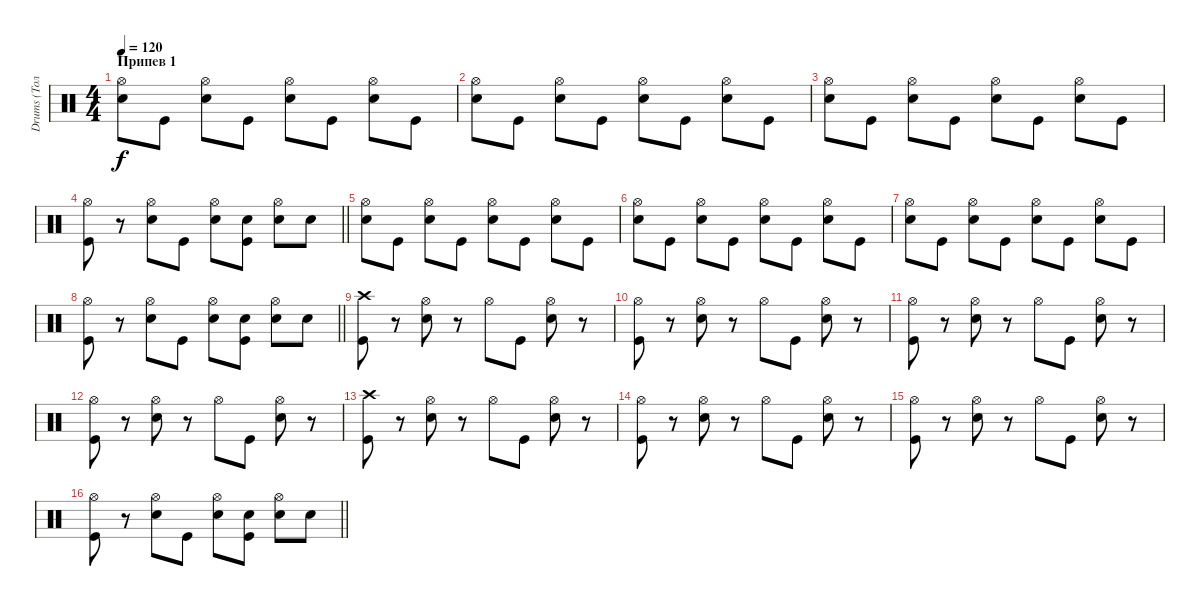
\track ("Drums (Толян)" "Drums (Тол") {instrument percussion}
\staff {score}
\articulation defaults
\ts (4 4)
\section ("" "Припев 1")
\tempo 120
\clef neutral
\ks c
("Hi-Hat (open)" "Electric Snare (hit)").8{dy f} "Kick (hit)".8 ("Hi-Hat (open)" "Electric Snare (hit)").8 "Kick (hit)".8 ("Hi-Hat (open)" "Electric Snare (hit)").8 "Kick (hit)".8 ("Hi-Hat (open)" "Electric Snare (hit)").8 "Kick (hit)".8 |
("Hi-Hat (open)" "Electric Snare (hit)").8 "Kick (hit)".8 ("Hi-Hat (open)" "Electric Snare (hit)").8 "Kick (hit)".8 ("Hi-Hat (open)" "Electric Snare (hit)").8 "Kick (hit)".8 ("Hi-Hat (open)" "Electric Snare (hit)").8 "Kick (hit)".8 |
("Hi-Hat (open)" "Electric Snare (hit)").8 "Kick (hit)".8 ("Hi-Hat (open)" "Electric Snare (hit)").8 "Kick (hit)".8 ("Hi-Hat (open)" "Electric Snare (hit)").8 "Kick (hit)".8 ("Hi-Hat (open)" "Electric Snare (hit)").8 "Kick (hit)".8 |
\barLineRight lightlight
("Hi-Hat (open)" "Kick (hit)").8 r.8 ("Hi-Hat (open)" "Electric Snare (hit)").8 "Kick (hit)".8 ("Hi-Hat (open)" "Electric Snare (hit)").8 ("Electric Snare (hit)" "Kick (hit)").8 ("Hi-Hat (open)" "Electric Snare (hit)").8 "Electric Snare (hit)".8 |
("Hi-Hat (open)" "Electric Snare (hit)").8 "Kick (hit)".8 ("Hi-Hat (open)" "Electric Snare (hit)").8 "Kick (hit)".8 ("Hi-Hat (open)" "Electric Snare (hit)").8 "Kick (hit)".8 ("Hi-Hat (open)" "Electric Snare (hit)").8 "Kick (hit)".8 |
("Hi-Hat (open)" "Electric Snare (hit)").8 "Kick (hit)".8 ("Hi-Hat (open)" "Electric Snare (hit)").8 "Kick (hit)".8 ("Hi-Hat (open)" "Electric Snare (hit)").8 "Kick (hit)".8 ("Hi-Hat (open)" "Electric Snare (hit)").8 "Kick (hit)".8 |
("Hi-Hat (open)" "Electric Snare (hit)").8 "Kick (hit)".8 ("Hi-Hat (open)" "Electric Snare (hit)").8 "Kick (hit)".8 ("Hi-Hat (open)" "Electric Snare (hit)").8 "Kick (hit)".8 ("Hi-Hat (open)" "Electric Snare (hit)").8 "Kick (hit)".8 |
\barLineRight lightlight
("Hi-Hat (open)" "Kick (hit)").8 r.8 ("Hi-Hat (open)" "Electric Snare (hit)").8 "Kick (hit)".8 ("Hi-Hat (open)" "Electric Snare (hit)").8 ("Electric Snare (hit)" "Kick (hit)").8 ("Hi-Hat (open)" "Electric Snare (hit)").8 "Electric Snare (hit)".8 |
("Crash high (hit)" "Kick (hit)").8 r.8 ("Hi-Hat (open)" "Electric Snare (hit)").8 r.8 "Hi-Hat (open)".8 "Kick (hit)".8 ("Hi-Hat (open)" "Electric Snare (hit)").8 r.8 |
("Hi-Hat (open)" "Kick (hit)").8 r.8 ("Hi-Hat (open)" "Electric Snare (hit)").8 r.8 "Hi-Hat (open)".8 "Kick (hit)".8 ("Hi-Hat (open)" "Electric Snare (hit)").8 r.8 |
("Hi-Hat (open)" "Kick (hit)").8 r.8 ("Hi-Hat (open)" "Electric Snare (hit)").8 r.8 "Hi-Hat (open)".8 "Kick (hit)".8 ("Hi-Hat (open)" "Electric Snare (hit)").8 r.8 |
("Hi-Hat (open)" "Kick (hit)").8 r.8 ("Hi-Hat (open)" "Electric Snare (hit)").8 r.8 "Hi-Hat (open)".8 "Kick (hit)".8 ("Hi-Hat (open)" "Electric Snare (hit)").8 r.8 |
("Crash high (hit)" "Kick (hit)").8 r.8 ("Hi-Hat (open)" "Electric Snare (hit)").8 r.8 "Hi-Hat (open)".8 "Kick (hit)".8 ("Hi-Hat (open)" "Electric Snare (hit)").8 r.8 |
("Hi-Hat (open)" "Kick (hit)").8 r.8 ("Hi-Hat (open)" "Electric Snare (hit)").8 r.8 "Hi-Hat (open)".8 "Kick (hit)".8 ("Hi-Hat (open)" "Electric Snare (hit)").8 r.8 |
("Hi-Hat (open)" "Kick (hit)").8 r.8 ("Hi-Hat (open)" "Electric Snare (hit)").8 r.8 "Hi-Hat (open)".8 "Kick (hit)".8 ("Hi-Hat (open)" "Electric Snare (hit)").8 r.8 |
\barLineRight lightlight
("Hi-Hat (open)" "Kick (hit)").8 r.8 ("Hi-Hat (open)" "Electric Snare (hit)").8 "Kick (hit)".8 ("Hi-Hat (open)" "Electric Snare (hit)").8 ("Electric Snare (hit)" "Kick (hit)").8 ("Hi-Hat (open)" "Electric Snare (hit)").8 "Electric Snare (hit)".8
